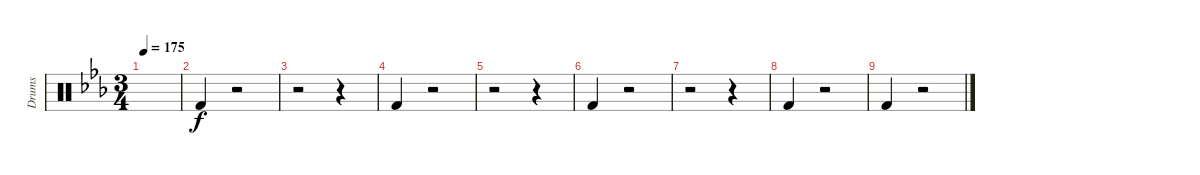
\track ("Drums" "Drums") {instrument percussion}
\staff {score}
\articulation defaults
\ts (3 4)
\tempo 175
\clef neutral
\ks eb
|
"Kick (hit) 2".4{dy f} r.2 |
r.2 r.4 |
"Kick (hit) 2".4 r.2 |
r.2 r.4 |
"Kick (hit) 2".4 r.2 |
r.2 r.4 |
"Kick (hit) 2".4 r.2 |
"Kick (hit) 2".4 r.2
